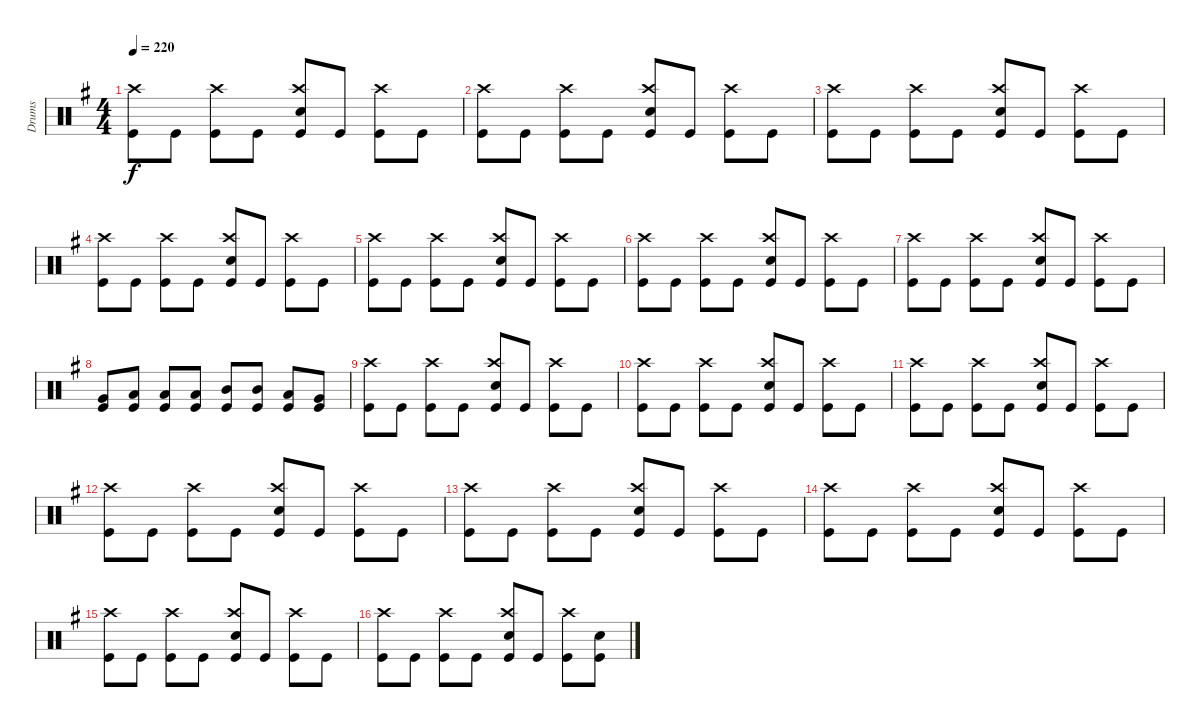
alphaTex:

\track ("Drums" "Drums") {instrument percussion}
\staff {score}
\articulation defaults
\ts (4 4)
\tempo 220
\clef neutral
\ks eminor
("Kick (hit)" "Crash high (hit)").8{dy f} "Kick (hit)".8 ("Kick (hit)" "Crash high (hit)").8 "Kick (hit)".8 ("Kick (hit)" "Snare (hit) 2" "Crash high (hit)").8 "Kick (hit)".8 ("Kick (hit)" "Crash high (hit)").8 "Kick (hit)".8 |
("Kick (hit)" "Crash high (hit)").8 "Kick (hit)".8 ("Kick (hit)" "Crash high (hit)").8 "Kick (hit)".8 ("Kick (hit)" "Snare (hit) 2" "Crash high (hit)").8 "Kick (hit)".8 ("Kick (hit)" "Crash high (hit)").8 "Kick (hit)".8 |
("Kick (hit)" "Crash high (hit)").8 "Kick (hit)".8 ("Kick (hit)" "Crash high (hit)").8 "Kick (hit)".8 ("Kick (hit)" "Snare (hit) 2" "Crash high (hit)").8 "Kick (hit)".8 ("Kick (hit)" "Crash high (hit)").8 "Kick (hit)".8 |
("Kick (hit)" "Crash high (hit)").8 "Kick (hit)".8 ("Kick (hit)" "Crash high (hit)").8 "Kick (hit)".8 ("Kick (hit)" "Snare (hit) 2" "Crash high (hit)").8 "Kick (hit)".8 ("Kick (hit)" "Crash high (hit)").8 "Kick (hit)".8 |
("Kick (hit)" "Crash high (hit)").8 "Kick (hit)".8 ("Kick (hit)" "Crash high (hit)").8 "Kick (hit)".8 ("Kick (hit)" "Snare (hit) 2" "Crash high (hit)").8 "Kick (hit)".8 ("Kick (hit)" "Crash high (hit)").8 "Kick (hit)".8 |
("Kick (hit)" "Crash high (hit)").8 "Kick (hit)".8 ("Kick (hit)" "Crash high (hit)").8 "Kick (hit)".8 ("Kick (hit)" "Snare (hit) 2" "Crash high (hit)").8 "Kick (hit)".8 ("Kick (hit)" "Crash high (hit)").8 "Kick (hit)".8 |
("Kick (hit)" "Crash high (hit)").8 "Kick (hit)".8 ("Kick (hit)" "Crash high (hit)").8 "Kick (hit)".8 ("Kick (hit)" "Snare (hit) 2" "Crash high (hit)").8 "Kick (hit)".8 ("Kick (hit)" "Crash high (hit)").8 "Kick (hit)".8 |
("Kick (hit)" "Very Low Tom (hit)").8 ("Kick (hit)" "Low Tom (hit)").8 ("Kick (hit)" "Low Tom (hit)").8 ("Kick (hit)" "Low Tom (hit)").8 ("Kick (hit)" "Mid Tom (hit)").8 ("Kick (hit)" "Mid Tom (hit)").8 ("Kick (hit)" "Low Tom (hit)").8 ("Kick (hit)" "Very Low Tom (hit)").8 |
("Kick (hit)" "Crash high (hit)").8 "Kick (hit)".8 ("Kick (hit)" "Crash high (hit)").8 "Kick (hit)".8 ("Kick (hit)" "Snare (hit) 2" "Crash high (hit)").8 "Kick (hit)".8 ("Kick (hit)" "Crash high (hit)").8 "Kick (hit)".8 |
("Kick (hit)" "Crash high (hit)").8 "Kick (hit)".8 ("Kick (hit)" "Crash high (hit)").8 "Kick (hit)".8 ("Kick (hit)" "Snare (hit) 2" "Crash high (hit)").8 "Kick (hit)".8 ("Kick (hit)" "Crash high (hit)").8 "Kick (hit)".8 |
("Kick (hit)" "Crash high (hit)").8 "Kick (hit)".8 ("Kick (hit)" "Crash high (hit)").8 "Kick (hit)".8 ("Kick (hit)" "Snare (hit) 2" "Crash high (hit)").8 "Kick (hit)".8 ("Kick (hit)" "Crash high (hit)").8 "Kick (hit)".8 |
("Kick (hit)" "Crash high (hit)").8 "Kick (hit)".8 ("Kick (hit)" "Crash high (hit)").8 "Kick (hit)".8 ("Kick (hit)" "Snare (hit) 2" "Crash high (hit)").8 "Kick (hit)".8 ("Kick (hit)" "Crash high (hit)").8 "Kick (hit)".8 |
("Kick (hit)" "Crash high (hit)").8 "Kick (hit)".8 ("Kick (hit)" "Crash high (hit)").8 "Kick (hit)".8 ("Kick (hit)" "Snare (hit) 2" "Crash high (hit)").8 "Kick (hit)".8 ("Kick (hit)" "Crash high (hit)").8 "Kick (hit)".8 |
("Kick (hit)" "Crash high (hit)").8 "Kick (hit)".8 ("Kick (hit)" "Crash high (hit)").8 "Kick (hit)".8 ("Kick (hit)" "Snare (hit) 2" "Crash high (hit)").8 "Kick (hit)".8 ("Kick (hit)" "Crash high (hit)").8 "Kick (hit)".8 |
("Kick (hit)" "Crash high (hit)").8 "Kick (hit)".8 ("Kick (hit)" "Crash high (hit)").8 "Kick (hit)".8 ("Kick (hit)" "Snare (hit) 2" "Crash high (hit)").8 "Kick (hit)".8 ("Kick (hit)" "Crash high (hit)").8 "Kick (hit)".8 |
("Kick (hit)" "Crash high (hit)").8 "Kick (hit)".8 ("Kick (hit)" "Crash high (hit)").8 "Kick (hit)".8 ("Kick (hit)" "Snare (hit) 2" "Crash high (hit)").8 "Kick (hit)".8 ("Kick (hit)" "Crash high (hit)").8 ("Kick (hit)" "Snare (hit) 2").8
